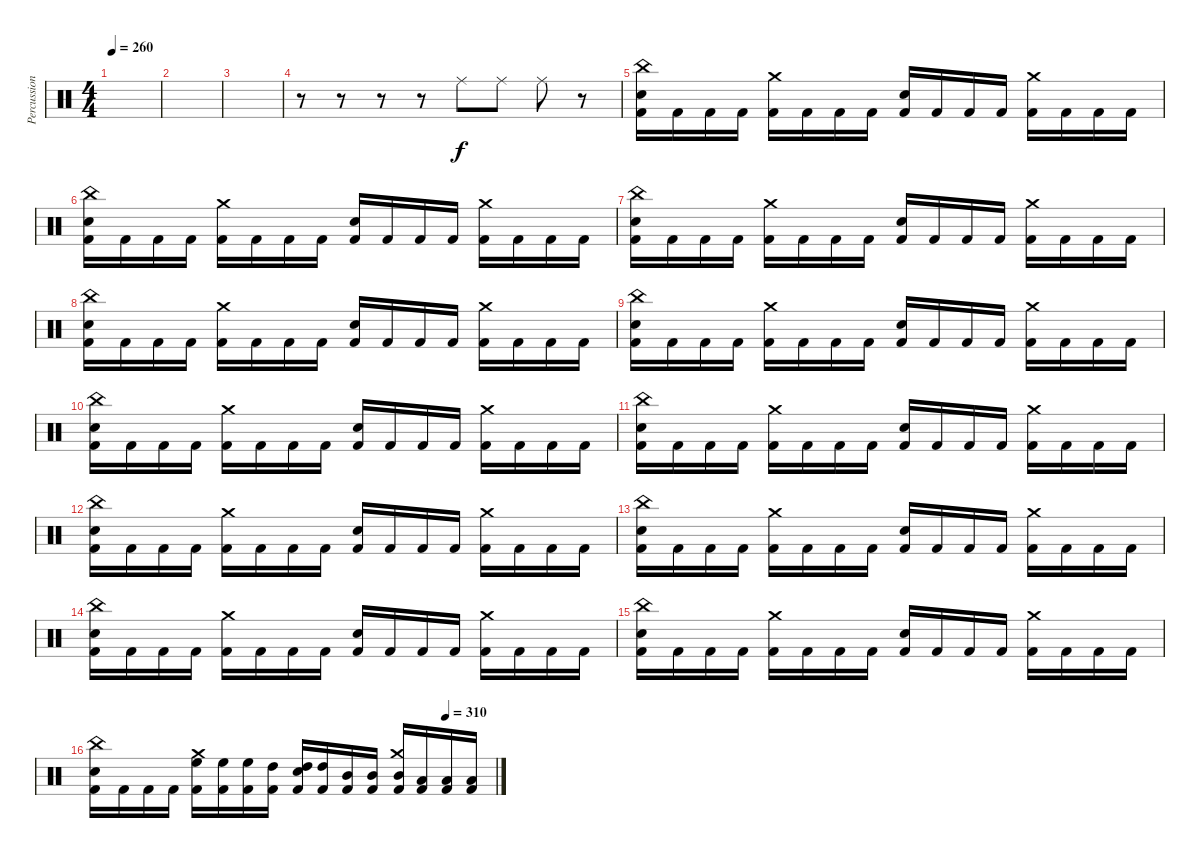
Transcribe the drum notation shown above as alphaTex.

\track ("Percussions" "Percussion") {instrument percussion}
\staff {score}
\articulation defaults
\ts (4 4)
\tempo 260
\clef neutral
\ks c
|
|
|
r.8 r.8 r.8 r.8 "Ride (middle)".8 "Ride (middle)".8 "Ride (middle)".8 r.8 |
("China (hit)" "Snare (hit) 2" "Kick (hit) 2").16 "Kick (hit) 2".16 "Kick (hit) 2".16 "Kick (hit) 2".16 ("Crash medium (hit)" "Kick (hit) 2").16 "Kick (hit) 2".16 "Kick (hit) 2".16 "Kick (hit) 2".16 ("Snare (hit) 2" "Kick (hit) 2").16 "Kick (hit) 2".16 "Kick (hit) 2".16 "Kick (hit) 2".16 ("Crash medium (hit)" "Kick (hit) 2").16 "Kick (hit) 2".16 "Kick (hit) 2".16 "Kick (hit) 2".16 |
("China (hit)" "Snare (hit) 2" "Kick (hit) 2").16 "Kick (hit) 2".16 "Kick (hit) 2".16 "Kick (hit) 2".16 ("Crash medium (hit)" "Kick (hit) 2").16 "Kick (hit) 2".16 "Kick (hit) 2".16 "Kick (hit) 2".16 ("Snare (hit) 2" "Kick (hit) 2").16 "Kick (hit) 2".16 "Kick (hit) 2".16 "Kick (hit) 2".16 ("Crash medium (hit)" "Kick (hit) 2").16 "Kick (hit) 2".16 "Kick (hit) 2".16 "Kick (hit) 2".16 |
("China (hit)" "Snare (hit) 2" "Kick (hit) 2").16 "Kick (hit) 2".16 "Kick (hit) 2".16 "Kick (hit) 2".16 ("Crash medium (hit)" "Kick (hit) 2").16 "Kick (hit) 2".16 "Kick (hit) 2".16 "Kick (hit) 2".16 ("Snare (hit) 2" "Kick (hit) 2").16 "Kick (hit) 2".16 "Kick (hit) 2".16 "Kick (hit) 2".16 ("Crash medium (hit)" "Kick (hit) 2").16 "Kick (hit) 2".16 "Kick (hit) 2".16 "Kick (hit) 2".16 |
("China (hit)" "Snare (hit) 2" "Kick (hit) 2").16 "Kick (hit) 2".16 "Kick (hit) 2".16 "Kick (hit) 2".16 ("Crash medium (hit)" "Kick (hit) 2").16 "Kick (hit) 2".16 "Kick (hit) 2".16 "Kick (hit) 2".16 ("Snare (hit) 2" "Kick (hit) 2").16 "Kick (hit) 2".16 "Kick (hit) 2".16 "Kick (hit) 2".16 ("Crash medium (hit)" "Kick (hit) 2").16 "Kick (hit) 2".16 "Kick (hit) 2".16 "Kick (hit) 2".16 |
("China (hit)" "Snare (hit) 2" "Kick (hit) 2").16 "Kick (hit) 2".16 "Kick (hit) 2".16 "Kick (hit) 2".16 ("Crash medium (hit)" "Kick (hit) 2").16 "Kick (hit) 2".16 "Kick (hit) 2".16 "Kick (hit) 2".16 ("Snare (hit) 2" "Kick (hit) 2").16 "Kick (hit) 2".16 "Kick (hit) 2".16 "Kick (hit) 2".16 ("Crash medium (hit)" "Kick (hit) 2").16 "Kick (hit) 2".16 "Kick (hit) 2".16 "Kick (hit) 2".16 |
("China (hit)" "Snare (hit) 2" "Kick (hit) 2").16 "Kick (hit) 2".16 "Kick (hit) 2".16 "Kick (hit) 2".16 ("Crash medium (hit)" "Kick (hit) 2").16 "Kick (hit) 2".16 "Kick (hit) 2".16 "Kick (hit) 2".16 ("Snare (hit) 2" "Kick (hit) 2").16 "Kick (hit) 2".16 "Kick (hit) 2".16 "Kick (hit) 2".16 ("Crash medium (hit)" "Kick (hit) 2").16 "Kick (hit) 2".16 "Kick (hit) 2".16 "Kick (hit) 2".16 |
("China (hit)" "Snare (hit) 2" "Kick (hit) 2").16 "Kick (hit) 2".16 "Kick (hit) 2".16 "Kick (hit) 2".16 ("Crash medium (hit)" "Kick (hit) 2").16 "Kick (hit) 2".16 "Kick (hit) 2".16 "Kick (hit) 2".16 ("Snare (hit) 2" "Kick (hit) 2").16 "Kick (hit) 2".16 "Kick (hit) 2".16 "Kick (hit) 2".16 ("Crash medium (hit)" "Kick (hit) 2").16 "Kick (hit) 2".16 "Kick (hit) 2".16 "Kick (hit) 2".16 |
("China (hit)" "Snare (hit) 2" "Kick (hit) 2").16 "Kick (hit) 2".16 "Kick (hit) 2".16 "Kick (hit) 2".16 ("Crash medium (hit)" "Kick (hit) 2").16 "Kick (hit) 2".16 "Kick (hit) 2".16 "Kick (hit) 2".16 ("Snare (hit) 2" "Kick (hit) 2").16 "Kick (hit) 2".16 "Kick (hit) 2".16 "Kick (hit) 2".16 ("Crash medium (hit)" "Kick (hit) 2").16 "Kick (hit) 2".16 "Kick (hit) 2".16 "Kick (hit) 2".16 |
("China (hit)" "Snare (hit) 2" "Kick (hit) 2").16 "Kick (hit) 2".16 "Kick (hit) 2".16 "Kick (hit) 2".16 ("Crash medium (hit)" "Kick (hit) 2").16 "Kick (hit) 2".16 "Kick (hit) 2".16 "Kick (hit) 2".16 ("Snare (hit) 2" "Kick (hit) 2").16 "Kick (hit) 2".16 "Kick (hit) 2".16 "Kick (hit) 2".16 ("Crash medium (hit)" "Kick (hit) 2").16 "Kick (hit) 2".16 "Kick (hit) 2".16 "Kick (hit) 2".16 |
("China (hit)" "Snare (hit) 2" "Kick (hit) 2").16 "Kick (hit) 2".16 "Kick (hit) 2".16 "Kick (hit) 2".16 ("Crash medium (hit)" "Kick (hit) 2").16 "Kick (hit) 2".16 "Kick (hit) 2".16 "Kick (hit) 2".16 ("Snare (hit) 2" "Kick (hit) 2").16 "Kick (hit) 2".16 "Kick (hit) 2".16 "Kick (hit) 2".16 ("Crash medium (hit)" "Kick (hit) 2").16 "Kick (hit) 2".16 "Kick (hit) 2".16 "Kick (hit) 2".16 |
("China (hit)" "Snare (hit) 2" "Kick (hit) 2").16 "Kick (hit) 2".16 "Kick (hit) 2".16 "Kick (hit) 2".16 ("Crash medium (hit)" "Kick (hit) 2").16 "Kick (hit) 2".16 "Kick (hit) 2".16 "Kick (hit) 2".16 ("Snare (hit) 2" "Kick (hit) 2").16 "Kick (hit) 2".16 "Kick (hit) 2".16 "Kick (hit) 2".16 ("Crash medium (hit)" "Kick (hit) 2").16 "Kick (hit) 2".16 "Kick (hit) 2".16 "Kick (hit) 2".16 |
\tempo (310 0.875)
("China (hit)" "Snare (hit) 2" "Kick (hit) 2").16 "Kick (hit) 2".16 "Kick (hit) 2".16 "Kick (hit) 2".16 ("High Floor Tom (hit)" "Crash medium (hit)" "Kick (hit) 2").16 ("High Floor Tom (hit)" "Kick (hit) 2").16 ("High Floor Tom (hit)" "Kick (hit) 2").16 ("High Tom (hit)" "Kick (hit) 2").16 ("High Tom (hit)" "Snare (hit) 2" "Kick (hit) 2").16 ("High Tom (hit)" "Kick (hit) 2").16 ("Mid Tom (hit)" "Kick (hit) 2").16 ("Mid Tom (hit)" "Kick (hit) 2").16 ("Mid Tom (hit)" "Crash medium (hit)" "Kick (hit) 2").16 ("Low Tom (hit)" "Kick (hit) 2").16 ("Low Tom (hit)" "Kick (hit) 2").16 ("Low Tom (hit)" "Kick (hit) 2").16
